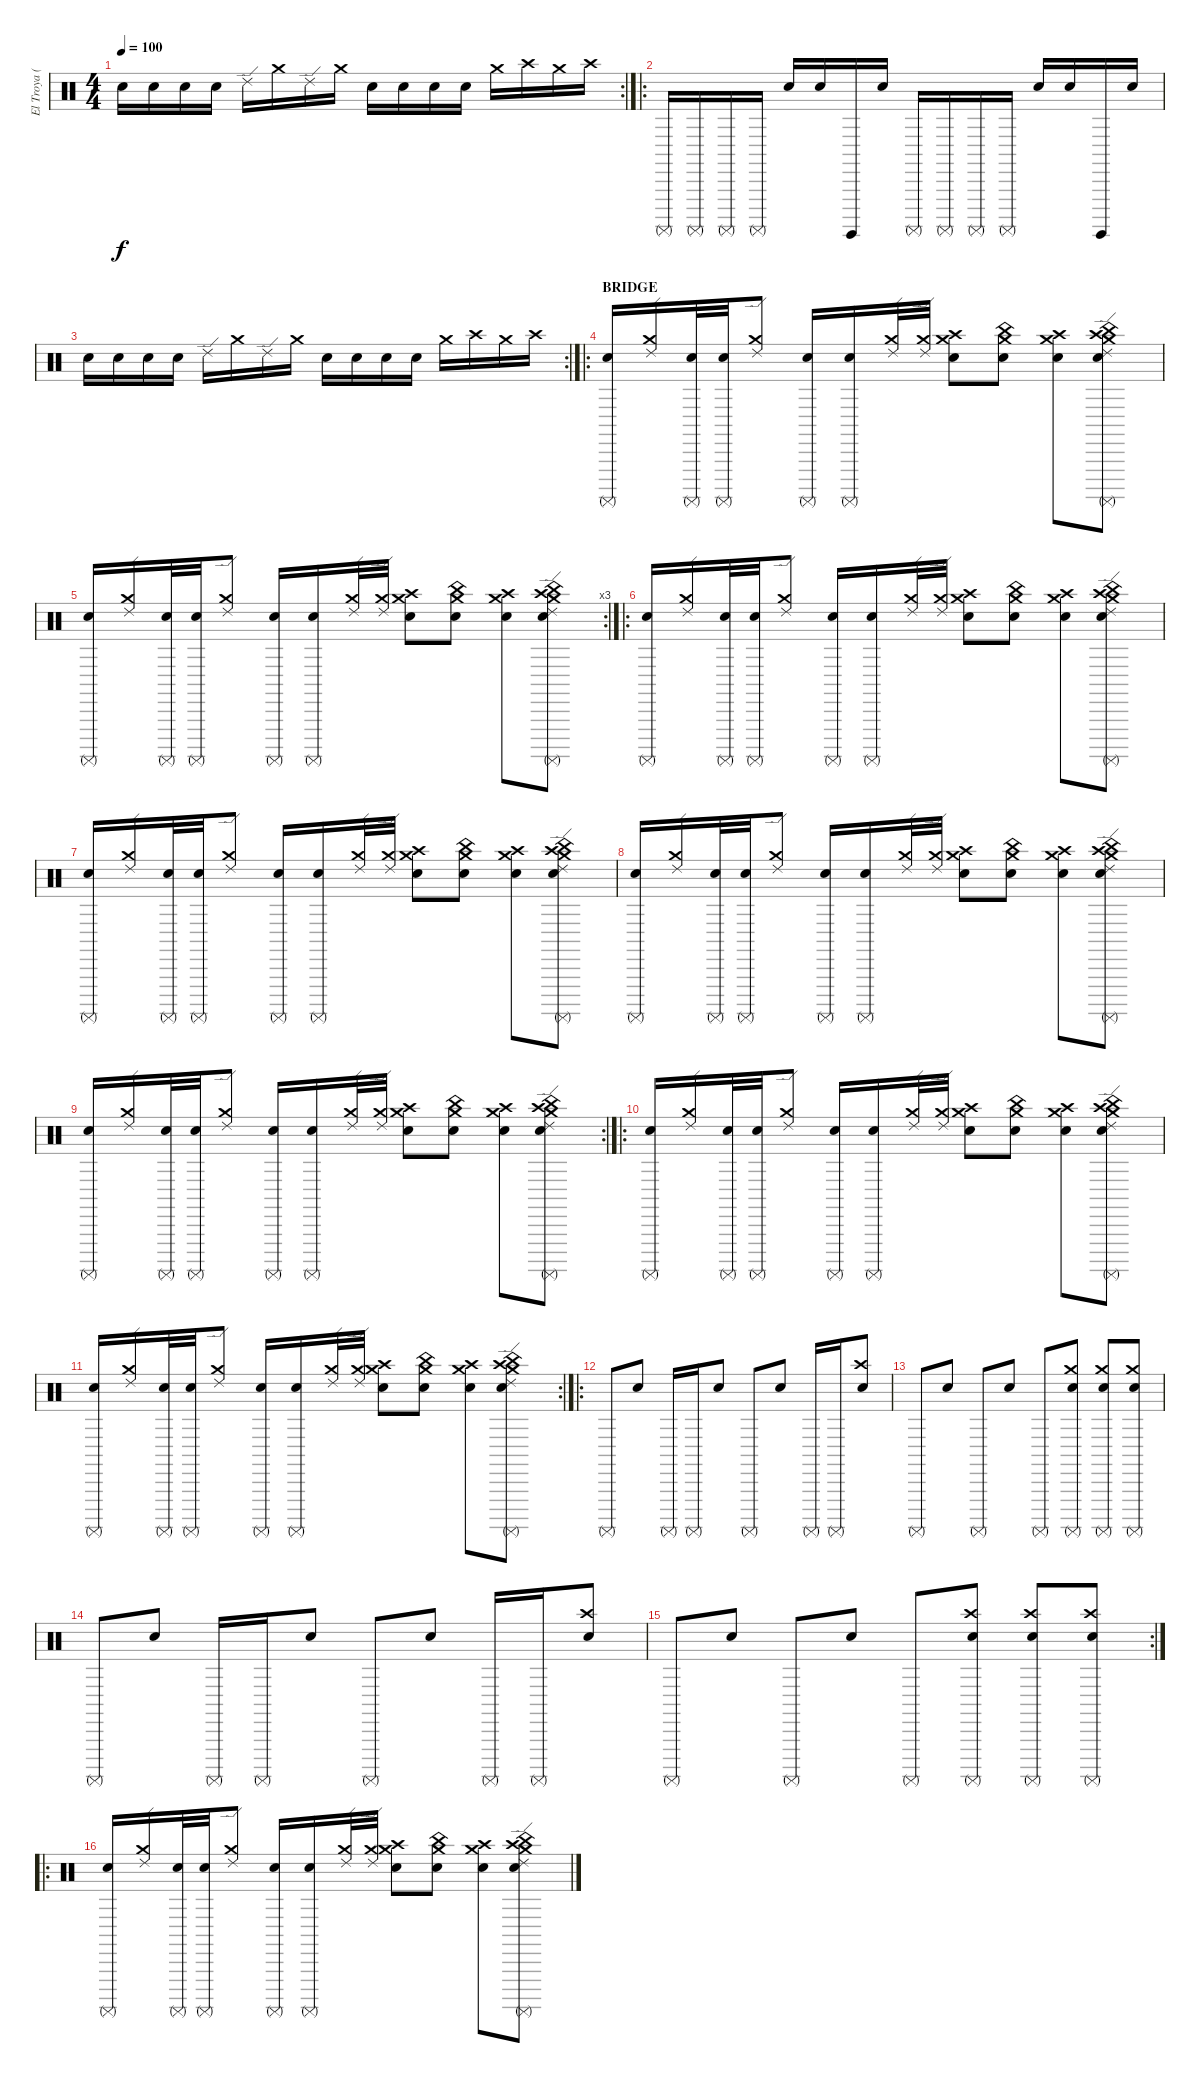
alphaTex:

\track ("El Troya (Premio)" "El Troya (") {instrument percussion}
\staff {score}
\articulation defaults
\rc 2
\ts (4 4)
\tempo 100
\clef neutral
\ks c "Electric Snare (hit)".16{dy f} "Electric Snare (hit)".16 "Electric Snare (hit)".16 "Electric Snare (hit)".16 "Ride (edge) 2".16 "Crash medium (hit)".16 "Ride (edge) 2".16 "Crash medium (hit)".16 "Electric Snare (hit)".16 "Electric Snare (hit)".16 "Electric Snare (hit)".16 "Electric Snare (hit)".16 "Crash medium (hit)".16 "Crash high (hit)".16 "Crash medium (hit)".16 "Crash high (hit)".16
|
\ro "Surdo (mute)".16 "Surdo (mute)".16 "Surdo (mute)".16 "Surdo (mute)".16 "Electric Snare (hit)".16 "Electric Snare (hit)".16 "Surdo (hit)".16 "Electric Snare (hit)".16 "Surdo (mute)".16 "Surdo (mute)".16 "Surdo (mute)".16 "Surdo (mute)".16 "Electric Snare (hit)".16 "Electric Snare (hit)".16 "Surdo (hit)".16 "Electric Snare (hit)".16
|
\rc 2 "Electric Snare (hit)".16 "Electric Snare (hit)".16 "Electric Snare (hit)".16 "Electric Snare (hit)".16 "Ride (edge) 2".16 "Crash medium (hit)".16 "Ride (edge) 2".16 "Crash medium (hit)".16 "Electric Snare (hit)".16 "Electric Snare (hit)".16 "Electric Snare (hit)".16 "Electric Snare (hit)".16 "Crash medium (hit)".16 "Crash high (hit)".16 "Crash medium (hit)".16 "Crash high (hit)".16
|
\ro
\section ("" "BRIDGE")
("Electric Snare (hit)" "Surdo (mute)").16 ("Ride (edge) 2" "Crash medium (hit)").16 ("Electric Snare (hit)" "Surdo (mute)").32 ("Electric Snare (hit)" "Surdo (mute)").32 ("Ride (edge) 2" "Crash medium (hit)").8 ("Electric Snare (hit)" "Surdo (mute)").16 ("Electric Snare (hit)" "Surdo (mute)").16 ("Crash medium (hit)" "Ride (edge) 2").32 ("Crash medium (hit)" "Ride (edge) 2").32 ("Crash high (hit)" "Crash medium (hit)" "Electric Snare (hit)").8 ("China (hit)" "Crash medium (hit)" "Electric Snare (hit)").8 ("Crash high (hit)" "Crash medium (hit)" "Electric Snare (hit)").8 ("Crash high (hit)" "China (hit)" "Ride (edge) 2" "Crash medium (hit)" "Surdo (mute)" "Electric Snare (hit)").8 |
\rc 3
("Electric Snare (hit)" "Surdo (mute)").16 ("Ride (edge) 2" "Crash medium (hit)").16 ("Electric Snare (hit)" "Surdo (mute)").32 ("Electric Snare (hit)" "Surdo (mute)").32 ("Ride (edge) 2" "Crash medium (hit)").8 ("Electric Snare (hit)" "Surdo (mute)").16 ("Electric Snare (hit)" "Surdo (mute)").16 ("Crash medium (hit)" "Ride (edge) 2").32 ("Crash medium (hit)" "Ride (edge) 2").32 ("Crash high (hit)" "Crash medium (hit)" "Electric Snare (hit)").8 ("China (hit)" "Crash medium (hit)" "Electric Snare (hit)").8 ("Crash high (hit)" "Crash medium (hit)" "Electric Snare (hit)").8 ("Crash high (hit)" "China (hit)" "Ride (edge) 2" "Crash medium (hit)" "Surdo (mute)" "Electric Snare (hit)").8 |
\ro
\section ("" "")
("Electric Snare (hit)" "Surdo (mute)").16 ("Ride (edge) 2" "Crash medium (hit)").16 ("Electric Snare (hit)" "Surdo (mute)").32 ("Electric Snare (hit)" "Surdo (mute)").32 ("Ride (edge) 2" "Crash medium (hit)").8 ("Electric Snare (hit)" "Surdo (mute)").16 ("Electric Snare (hit)" "Surdo (mute)").16 ("Crash medium (hit)" "Ride (edge) 2").32 ("Crash medium (hit)" "Ride (edge) 2").32 ("Crash high (hit)" "Crash medium (hit)" "Electric Snare (hit)").8 ("China (hit)" "Crash medium (hit)" "Electric Snare (hit)").8 ("Crash high (hit)" "Crash medium (hit)" "Electric Snare (hit)").8 ("Crash high (hit)" "China (hit)" "Ride (edge) 2" "Crash medium (hit)" "Surdo (mute)" "Electric Snare (hit)").8 |
("Electric Snare (hit)" "Surdo (mute)").16 ("Ride (edge) 2" "Crash medium (hit)").16 ("Electric Snare (hit)" "Surdo (mute)").32 ("Electric Snare (hit)" "Surdo (mute)").32 ("Ride (edge) 2" "Crash medium (hit)").8 ("Electric Snare (hit)" "Surdo (mute)").16 ("Electric Snare (hit)" "Surdo (mute)").16 ("Crash medium (hit)" "Ride (edge) 2").32 ("Crash medium (hit)" "Ride (edge) 2").32 ("Crash high (hit)" "Crash medium (hit)" "Electric Snare (hit)").8 ("China (hit)" "Crash medium (hit)" "Electric Snare (hit)").8 ("Crash high (hit)" "Crash medium (hit)" "Electric Snare (hit)").8 ("Crash high (hit)" "China (hit)" "Ride (edge) 2" "Crash medium (hit)" "Surdo (mute)" "Electric Snare (hit)").8 |
("Electric Snare (hit)" "Surdo (mute)").16 ("Ride (edge) 2" "Crash medium (hit)").16 ("Electric Snare (hit)" "Surdo (mute)").32 ("Electric Snare (hit)" "Surdo (mute)").32 ("Ride (edge) 2" "Crash medium (hit)").8 ("Electric Snare (hit)" "Surdo (mute)").16 ("Electric Snare (hit)" "Surdo (mute)").16 ("Crash medium (hit)" "Ride (edge) 2").32 ("Crash medium (hit)" "Ride (edge) 2").32 ("Crash high (hit)" "Crash medium (hit)" "Electric Snare (hit)").8 ("China (hit)" "Crash medium (hit)" "Electric Snare (hit)").8 ("Crash high (hit)" "Crash medium (hit)" "Electric Snare (hit)").8 ("Crash high (hit)" "China (hit)" "Ride (edge) 2" "Crash medium (hit)" "Surdo (mute)" "Electric Snare (hit)").8 |
\rc 2
("Electric Snare (hit)" "Surdo (mute)").16 ("Ride (edge) 2" "Crash medium (hit)").16 ("Electric Snare (hit)" "Surdo (mute)").32 ("Electric Snare (hit)" "Surdo (mute)").32 ("Ride (edge) 2" "Crash medium (hit)").8 ("Electric Snare (hit)" "Surdo (mute)").16 ("Electric Snare (hit)" "Surdo (mute)").16 ("Crash medium (hit)" "Ride (edge) 2").32 ("Crash medium (hit)" "Ride (edge) 2").32 ("Crash high (hit)" "Crash medium (hit)" "Electric Snare (hit)").8 ("China (hit)" "Crash medium (hit)" "Electric Snare (hit)").8 ("Crash high (hit)" "Crash medium (hit)" "Electric Snare (hit)").8 ("Crash high (hit)" "China (hit)" "Ride (edge) 2" "Crash medium (hit)" "Surdo (mute)" "Electric Snare (hit)").8 |
\ro
("Electric Snare (hit)" "Surdo (mute)").16 ("Ride (edge) 2" "Crash medium (hit)").16 ("Electric Snare (hit)" "Surdo (mute)").32 ("Electric Snare (hit)" "Surdo (mute)").32 ("Ride (edge) 2" "Crash medium (hit)").8 ("Electric Snare (hit)" "Surdo (mute)").16 ("Electric Snare (hit)" "Surdo (mute)").16 ("Crash medium (hit)" "Ride (edge) 2").32 ("Crash medium (hit)" "Ride (edge) 2").32 ("Crash high (hit)" "Crash medium (hit)" "Electric Snare (hit)").8 ("China (hit)" "Crash medium (hit)" "Electric Snare (hit)").8 ("Crash high (hit)" "Crash medium (hit)" "Electric Snare (hit)").8 ("Crash high (hit)" "China (hit)" "Ride (edge) 2" "Crash medium (hit)" "Surdo (mute)" "Electric Snare (hit)").8 |
\rc 2
("Electric Snare (hit)" "Surdo (mute)").16 ("Ride (edge) 2" "Crash medium (hit)").16 ("Electric Snare (hit)" "Surdo (mute)").32 ("Electric Snare (hit)" "Surdo (mute)").32 ("Ride (edge) 2" "Crash medium (hit)").8 ("Electric Snare (hit)" "Surdo (mute)").16 ("Electric Snare (hit)" "Surdo (mute)").16 ("Crash medium (hit)" "Ride (edge) 2").32 ("Crash medium (hit)" "Ride (edge) 2").32 ("Crash high (hit)" "Crash medium (hit)" "Electric Snare (hit)").8 ("China (hit)" "Crash medium (hit)" "Electric Snare (hit)").8 ("Crash high (hit)" "Crash medium (hit)" "Electric Snare (hit)").8 ("Crash high (hit)" "China (hit)" "Ride (edge) 2" "Crash medium (hit)" "Surdo (mute)" "Electric Snare (hit)").8 |
\ro "Surdo (mute)".8 "Electric Snare (hit)".8 "Surdo (mute)".16 "Surdo (mute)".16 "Electric Snare (hit)".8 "Surdo (mute)".8 "Electric Snare (hit)".8 "Surdo (mute)".16 "Surdo (mute)".16
("Crash high (hit)" "Electric Snare (hit)").8 |
"Surdo (mute)".8 "Electric Snare (hit)".8 "Surdo (mute)".8 "Electric Snare (hit)".8 "Surdo (mute)".8 ("Surdo (mute)" "Crash medium (hit)" "Electric Snare (hit)").8 ("Surdo (mute)" "Crash medium (hit)" "Electric Snare (hit)").8 ("Surdo (mute)" "Crash medium (hit)" "Electric Snare (hit)").8 |
"Surdo (mute)".8 "Electric Snare (hit)".8 "Surdo (mute)".16 "Surdo (mute)".16 "Electric Snare (hit)".8 "Surdo (mute)".8 "Electric Snare (hit)".8 "Surdo (mute)".16 "Surdo (mute)".16 ("Crash high (hit)" "Electric Snare (hit)").8 |
\rc 2 "Surdo (mute)".8 "Electric Snare (hit)".8 "Surdo (mute)".8 "Electric Snare (hit)".8 "Surdo (mute)".8
("Crash high (hit)" "Surdo (mute)" "Electric Snare (hit)").8 ("Crash high (hit)" "Electric Snare (hit)" "Surdo (mute)").8 ("Crash high (hit)" "Surdo (mute)" "Electric Snare (hit)").8 |
\ro
("Electric Snare (hit)" "Surdo (mute)").16 ("Ride (edge) 2" "Crash medium (hit)").16 ("Electric Snare (hit)" "Surdo (mute)").32 ("Electric Snare (hit)" "Surdo (mute)").32 ("Ride (edge) 2" "Crash medium (hit)").8 ("Electric Snare (hit)" "Surdo (mute)").16 ("Electric Snare (hit)" "Surdo (mute)").16 ("Crash medium (hit)" "Ride (edge) 2").32 ("Crash medium (hit)" "Ride (edge) 2").32 ("Crash high (hit)" "Crash medium (hit)" "Electric Snare (hit)").8 ("China (hit)" "Crash medium (hit)" "Electric Snare (hit)").8 ("Crash high (hit)" "Crash medium (hit)" "Electric Snare (hit)").8 ("Crash high (hit)" "China (hit)" "Ride (edge) 2" "Crash medium (hit)" "Surdo (mute)" "Electric Snare (hit)").8
